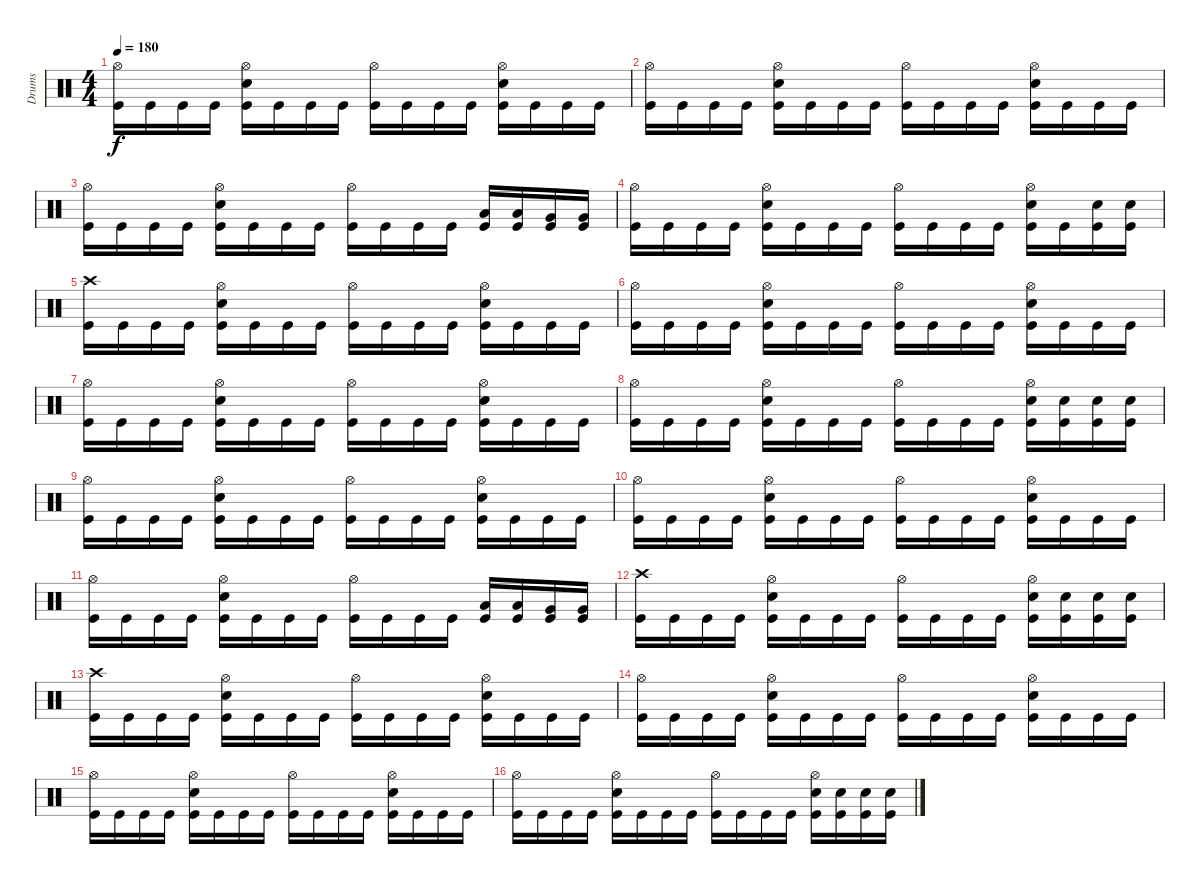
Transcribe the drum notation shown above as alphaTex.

\track ("Drums" "Drums") {instrument percussion}
\staff {score}
\articulation defaults
\ts (4 4)
\tempo 180
\clef neutral
\ks c
("Hi-Hat (open)" "Kick (hit)").16{dy f} "Kick (hit)".16 "Kick (hit)".16 "Kick (hit)".16 ("Hi-Hat (open)" "Electric Snare (hit)" "Kick (hit)").16 "Kick (hit)".16 "Kick (hit)".16 "Kick (hit)".16 ("Hi-Hat (open)" "Kick (hit)").16 "Kick (hit)".16 "Kick (hit)".16 "Kick (hit)".16 ("Hi-Hat (open)" "Electric Snare (hit)" "Kick (hit)").16 "Kick (hit)".16 "Kick (hit)".16 "Kick (hit)".16 |
("Hi-Hat (open)" "Kick (hit)").16 "Kick (hit)".16 "Kick (hit)".16 "Kick (hit)".16 ("Hi-Hat (open)" "Electric Snare (hit)" "Kick (hit)").16 "Kick (hit)".16 "Kick (hit)".16 "Kick (hit)".16 ("Hi-Hat (open)" "Kick (hit)").16 "Kick (hit)".16 "Kick (hit)".16 "Kick (hit)".16 ("Hi-Hat (open)" "Electric Snare (hit)" "Kick (hit)").16 "Kick (hit)".16 "Kick (hit)".16 "Kick (hit)".16 |
("Hi-Hat (open)" "Kick (hit)").16 "Kick (hit)".16 "Kick (hit)".16 "Kick (hit)".16 ("Hi-Hat (open)" "Electric Snare (hit)" "Kick (hit)").16 "Kick (hit)".16 "Kick (hit)".16 "Kick (hit)".16 ("Hi-Hat (open)" "Kick (hit)").16 "Kick (hit)".16 "Kick (hit)".16 "Kick (hit)".16 ("Low Tom (hit)" "Kick (hit)").16 ("Low Tom (hit)" "Kick (hit)").16 ("Very Low Tom (hit)" "Kick (hit)").16 ("Very Low Tom (hit)" "Kick (hit)").16 |
("Hi-Hat (open)" "Kick (hit)").16 "Kick (hit)".16 "Kick (hit)".16 "Kick (hit)".16 ("Hi-Hat (open)" "Electric Snare (hit)" "Kick (hit)").16 "Kick (hit)".16 "Kick (hit)".16 "Kick (hit)".16 ("Hi-Hat (open)" "Kick (hit)").16 "Kick (hit)".16 "Kick (hit)".16 "Kick (hit)".16 ("Hi-Hat (open)" "Electric Snare (hit)" "Kick (hit)").16 "Kick (hit)".16 ("Electric Snare (hit)" "Kick (hit)").16 ("Electric Snare (hit)" "Kick (hit)").16 |
("Crash high (hit)" "Kick (hit)").16 "Kick (hit)".16 "Kick (hit)".16 "Kick (hit)".16 ("Hi-Hat (open)" "Electric Snare (hit)" "Kick (hit)").16 "Kick (hit)".16 "Kick (hit)".16 "Kick (hit)".16 ("Hi-Hat (open)" "Kick (hit)").16 "Kick (hit)".16 "Kick (hit)".16 "Kick (hit)".16 ("Hi-Hat (open)" "Electric Snare (hit)" "Kick (hit)").16 "Kick (hit)".16 "Kick (hit)".16 "Kick (hit)".16 |
("Hi-Hat (open)" "Kick (hit)").16 "Kick (hit)".16 "Kick (hit)".16 "Kick (hit)".16 ("Hi-Hat (open)" "Electric Snare (hit)" "Kick (hit)").16 "Kick (hit)".16 "Kick (hit)".16 "Kick (hit)".16 ("Hi-Hat (open)" "Kick (hit)").16 "Kick (hit)".16 "Kick (hit)".16 "Kick (hit)".16 ("Hi-Hat (open)" "Electric Snare (hit)" "Kick (hit)").16 "Kick (hit)".16 "Kick (hit)".16 "Kick (hit)".16 |
("Hi-Hat (open)" "Kick (hit)").16 "Kick (hit)".16 "Kick (hit)".16 "Kick (hit)".16 ("Hi-Hat (open)" "Electric Snare (hit)" "Kick (hit)").16 "Kick (hit)".16 "Kick (hit)".16 "Kick (hit)".16 ("Hi-Hat (open)" "Kick (hit)").16 "Kick (hit)".16 "Kick (hit)".16 "Kick (hit)".16 ("Hi-Hat (open)" "Electric Snare (hit)" "Kick (hit)").16 "Kick (hit)".16 "Kick (hit)".16 "Kick (hit)".16 |
("Hi-Hat (open)" "Kick (hit)").16 "Kick (hit)".16 "Kick (hit)".16 "Kick (hit)".16 ("Hi-Hat (open)" "Electric Snare (hit)" "Kick (hit)").16 "Kick (hit)".16 "Kick (hit)".16 "Kick (hit)".16 ("Hi-Hat (open)" "Kick (hit)").16 "Kick (hit)".16 "Kick (hit)".16 "Kick (hit)".16 ("Hi-Hat (open)" "Electric Snare (hit)" "Kick (hit)").16 ("Electric Snare (hit)" "Kick (hit)").16 ("Electric Snare (hit)" "Kick (hit)").16 ("Electric Snare (hit)" "Kick (hit)").16 |
("Hi-Hat (open)" "Kick (hit)").16 "Kick (hit)".16 "Kick (hit)".16 "Kick (hit)".16 ("Hi-Hat (open)" "Electric Snare (hit)" "Kick (hit)").16 "Kick (hit)".16 "Kick (hit)".16 "Kick (hit)".16 ("Hi-Hat (open)" "Kick (hit)").16 "Kick (hit)".16 "Kick (hit)".16 "Kick (hit)".16 ("Hi-Hat (open)" "Electric Snare (hit)" "Kick (hit)").16 "Kick (hit)".16 "Kick (hit)".16 "Kick (hit)".16 |
("Hi-Hat (open)" "Kick (hit)").16 "Kick (hit)".16 "Kick (hit)".16 "Kick (hit)".16 ("Hi-Hat (open)" "Electric Snare (hit)" "Kick (hit)").16 "Kick (hit)".16 "Kick (hit)".16 "Kick (hit)".16 ("Hi-Hat (open)" "Kick (hit)").16 "Kick (hit)".16 "Kick (hit)".16 "Kick (hit)".16 ("Hi-Hat (open)" "Electric Snare (hit)" "Kick (hit)").16 "Kick (hit)".16 "Kick (hit)".16 "Kick (hit)".16 |
("Hi-Hat (open)" "Kick (hit)").16 "Kick (hit)".16 "Kick (hit)".16 "Kick (hit)".16 ("Hi-Hat (open)" "Electric Snare (hit)" "Kick (hit)").16 "Kick (hit)".16 "Kick (hit)".16 "Kick (hit)".16 ("Hi-Hat (open)" "Kick (hit)").16 "Kick (hit)".16 "Kick (hit)".16 "Kick (hit)".16 ("Low Tom (hit)" "Kick (hit)").16 ("Low Tom (hit)" "Kick (hit)").16 ("Very Low Tom (hit)" "Kick (hit)").16 ("Very Low Tom (hit)" "Kick (hit)").16 |
("Crash high (hit)" "Kick (hit)").16 "Kick (hit)".16 "Kick (hit)".16 "Kick (hit)".16 ("Hi-Hat (open)" "Electric Snare (hit)" "Kick (hit)").16 "Kick (hit)".16 "Kick (hit)".16 "Kick (hit)".16 ("Hi-Hat (open)" "Kick (hit)").16 "Kick (hit)".16 "Kick (hit)".16 "Kick (hit)".16 ("Hi-Hat (open)" "Electric Snare (hit)" "Kick (hit)").16 ("Electric Snare (hit)" "Kick (hit)").16 ("Electric Snare (hit)" "Kick (hit)").16 ("Electric Snare (hit)" "Kick (hit)").16 |
("Crash high (hit)" "Kick (hit)").16 "Kick (hit)".16 "Kick (hit)".16 "Kick (hit)".16 ("Hi-Hat (open)" "Electric Snare (hit)" "Kick (hit)").16 "Kick (hit)".16 "Kick (hit)".16 "Kick (hit)".16 ("Hi-Hat (open)" "Kick (hit)").16 "Kick (hit)".16 "Kick (hit)".16 "Kick (hit)".16 ("Hi-Hat (open)" "Electric Snare (hit)" "Kick (hit)").16 "Kick (hit)".16 "Kick (hit)".16 "Kick (hit)".16 |
("Hi-Hat (open)" "Kick (hit)").16 "Kick (hit)".16 "Kick (hit)".16 "Kick (hit)".16 ("Hi-Hat (open)" "Electric Snare (hit)" "Kick (hit)").16 "Kick (hit)".16 "Kick (hit)".16 "Kick (hit)".16 ("Hi-Hat (open)" "Kick (hit)").16 "Kick (hit)".16 "Kick (hit)".16 "Kick (hit)".16 ("Hi-Hat (open)" "Electric Snare (hit)" "Kick (hit)").16 "Kick (hit)".16 "Kick (hit)".16 "Kick (hit)".16 |
("Hi-Hat (open)" "Kick (hit)").16 "Kick (hit)".16 "Kick (hit)".16 "Kick (hit)".16 ("Hi-Hat (open)" "Electric Snare (hit)" "Kick (hit)").16 "Kick (hit)".16 "Kick (hit)".16 "Kick (hit)".16 ("Hi-Hat (open)" "Kick (hit)").16 "Kick (hit)".16 "Kick (hit)".16 "Kick (hit)".16 ("Hi-Hat (open)" "Electric Snare (hit)" "Kick (hit)").16 "Kick (hit)".16 "Kick (hit)".16 "Kick (hit)".16 |
("Hi-Hat (open)" "Kick (hit)").16 "Kick (hit)".16 "Kick (hit)".16 "Kick (hit)".16 ("Hi-Hat (open)" "Electric Snare (hit)" "Kick (hit)").16 "Kick (hit)".16 "Kick (hit)".16 "Kick (hit)".16 ("Hi-Hat (open)" "Kick (hit)").16 "Kick (hit)".16 "Kick (hit)".16 "Kick (hit)".16 ("Hi-Hat (open)" "Electric Snare (hit)" "Kick (hit)").16 ("Electric Snare (hit)" "Kick (hit)").16 ("Electric Snare (hit)" "Kick (hit)").16 ("Electric Snare (hit)" "Kick (hit)").16
